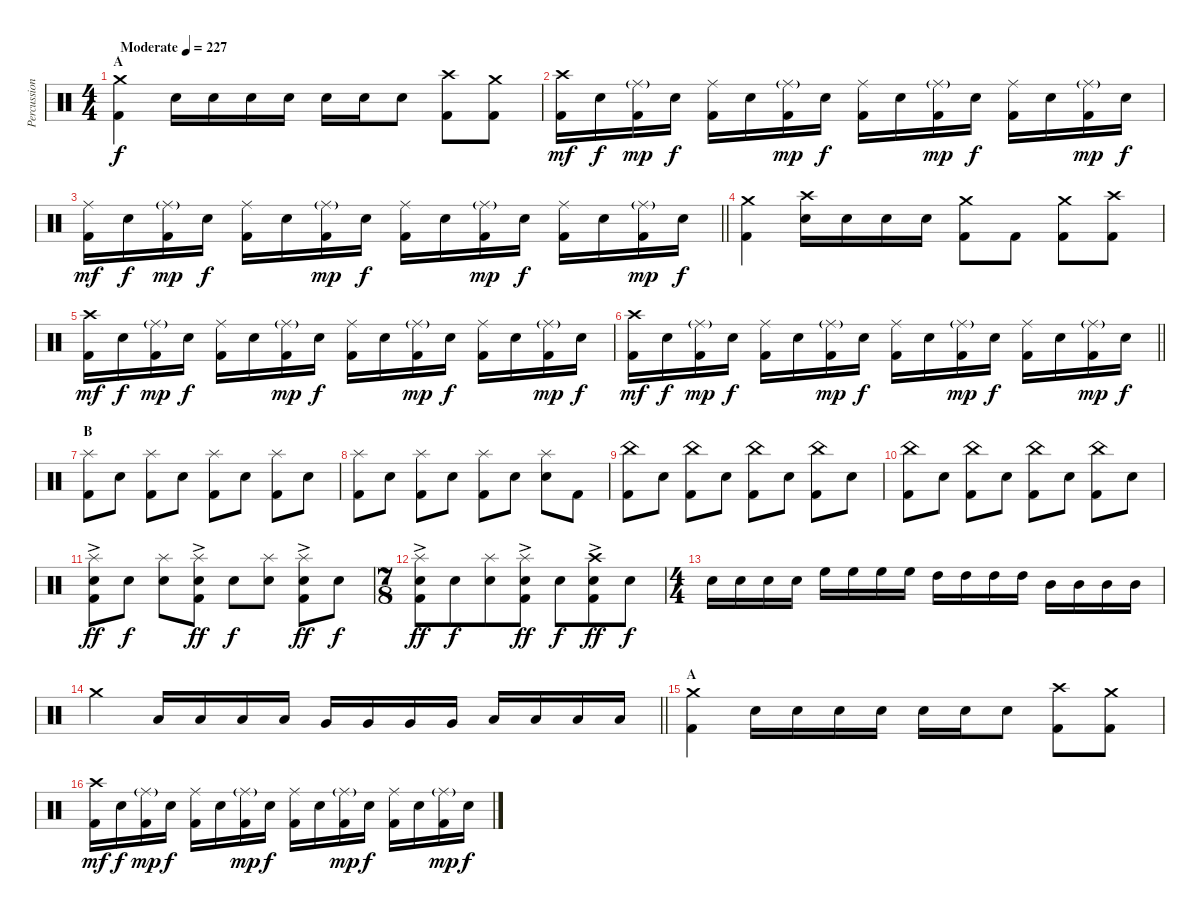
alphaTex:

\track ("Percussion" "Percussion") {instrument percussion}
\staff {score}
\articulation defaults
\ts (4 4)
\section ("" "A")
\tempo (227 "Moderate")
\clef neutral
\ks c
("Crash medium (hit)" "Kick (hit) 2").4{dy f} "Electric Snare (hit)".16 "Electric Snare (hit)".16 "Electric Snare (hit)".16 "Electric Snare (hit)".16 "Electric Snare (hit)".16 "Electric Snare (hit)".16 "Electric Snare (hit)".8 ("Crash high (hit)" "Kick (hit) 2").8 ("Crash medium (hit)" "Kick (hit) 2").8 |
("Crash high (hit)" "Kick (hit) 2").16{dy mf} "Electric Snare (hit)".16{dy f} ("Ride (middle)"{g} "Kick (hit) 2").16{dy mp} "Electric Snare (hit)".16{dy f} ("Ride (middle)" "Kick (hit) 2").16 "Electric Snare (hit)".16 ("Ride (middle)"{g} "Kick (hit) 2").16{dy mp} "Electric Snare (hit)".16{dy f} ("Ride (middle)" "Kick (hit) 2").16 "Electric Snare (hit)".16 ("Ride (middle)"{g} "Kick (hit) 2").16{dy mp} "Electric Snare (hit)".16{dy f} ("Ride (middle)" "Kick (hit) 2").16 "Electric Snare (hit)".16 ("Ride (middle)"{g} "Kick (hit) 2").16{dy mp} "Electric Snare (hit)".16{dy f} |
\barLineRight lightlight
("Ride (middle)" "Kick (hit) 2").16{dy mf} "Electric Snare (hit)".16{dy f} ("Ride (middle)"{g} "Kick (hit) 2").16{dy mp} "Electric Snare (hit)".16{dy f} ("Ride (middle)" "Kick (hit) 2").16 "Electric Snare (hit)".16 ("Ride (middle)"{g} "Kick (hit) 2").16{dy mp} "Electric Snare (hit)".16{dy f} ("Ride (middle)" "Kick (hit) 2").16 "Electric Snare (hit)".16 ("Ride (middle)"{g} "Kick (hit) 2").16{dy mp} "Electric Snare (hit)".16{dy f} ("Ride (middle)" "Kick (hit) 2").16 "Electric Snare (hit)".16 ("Ride (middle)"{g} "Kick (hit) 2").16{dy mp} "Electric Snare (hit)".16{dy f} |
\section ("" "")
("Crash medium (hit)" "Kick (hit) 2").4 ("Crash high (hit)" "Electric Snare (hit)").16 "Electric Snare (hit)".16 "Electric Snare (hit)".16 "Electric Snare (hit)".16 ("Crash medium (hit)" "Kick (hit) 2").8 "Kick (hit) 2".8 ("Crash medium (hit)" "Kick (hit) 2").8 ("Crash high (hit)" "Kick (hit) 2").8 |
("Crash high (hit)" "Kick (hit) 2").16{dy mf} "Electric Snare (hit)".16{dy f} ("Ride (middle)"{g} "Kick (hit) 2").16{dy mp} "Electric Snare (hit)".16{dy f} ("Ride (middle)" "Kick (hit) 2").16 "Electric Snare (hit)".16 ("Ride (middle)"{g} "Kick (hit) 2").16{dy mp} "Electric Snare (hit)".16{dy f} ("Ride (middle)" "Kick (hit) 2").16 "Electric Snare (hit)".16 ("Ride (middle)"{g} "Kick (hit) 2").16{dy mp} "Electric Snare (hit)".16{dy f} ("Ride (middle)" "Kick (hit) 2").16 "Electric Snare (hit)".16 ("Ride (middle)"{g} "Kick (hit) 2").16{dy mp} "Electric Snare (hit)".16{dy f} |
\barLineRight lightlight
("Crash high (hit)" "Kick (hit) 2").16{dy mf} "Electric Snare (hit)".16{dy f} ("Ride (middle)"{g} "Kick (hit) 2").16{dy mp} "Electric Snare (hit)".16{dy f} ("Ride (middle)" "Kick (hit) 2").16 "Electric Snare (hit)".16 ("Ride (middle)"{g} "Kick (hit) 2").16{dy mp} "Electric Snare (hit)".16{dy f} ("Ride (middle)" "Kick (hit) 2").16 "Electric Snare (hit)".16 ("Ride (middle)"{g} "Kick (hit) 2").16{dy mp} "Electric Snare (hit)".16{dy f} ("Ride (middle)" "Kick (hit) 2").16 "Electric Snare (hit)".16 ("Ride (middle)"{g} "Kick (hit) 2").16{dy mp} "Electric Snare (hit)".16{dy f} |
\section ("" "B")
("Splash (hit)" "Kick (hit) 2").8 "Electric Snare (hit)".8 ("Splash (hit)" "Kick (hit) 2").8 "Electric Snare (hit)".8 ("Splash (hit)" "Kick (hit) 2").8 "Electric Snare (hit)".8 ("Splash (hit)" "Kick (hit) 2").8 "Electric Snare (hit)".8 |
("Splash (hit)" "Kick (hit) 2").8 "Electric Snare (hit)".8 ("Splash (hit)" "Kick (hit) 2").8 "Electric Snare (hit)".8 ("Splash (hit)" "Kick (hit) 2").8 "Electric Snare (hit)".8 ("Splash (hit)" "Electric Snare (hit)").8 "Kick (hit) 2".8 |
("China (hit)" "Kick (hit) 2").8 "Electric Snare (hit)".8 ("China (hit)" "Kick (hit) 2").8 "Electric Snare (hit)".8 ("China (hit)" "Kick (hit) 2").8 "Electric Snare (hit)".8 ("China (hit)" "Kick (hit) 2").8 "Electric Snare (hit)".8 |
("China (hit)" "Kick (hit) 2").8 "Electric Snare (hit)".8 ("China (hit)" "Kick (hit) 2").8 "Electric Snare (hit)".8 ("China (hit)" "Kick (hit) 2").8 "Electric Snare (hit)".8 ("China (hit)" "Kick (hit) 2").8 "Electric Snare (hit)".8 |
("Splash (hit)"{ac} "Electric Snare (hit)" "Kick (hit) 2").8{dy ff} "Electric Snare (hit)".8{dy f} ("Splash (hit)" "Electric Snare (hit)").8 ("Splash (hit)"{ac} "Electric Snare (hit)" "Kick (hit) 2").8{dy ff} "Electric Snare (hit)".8{dy f} ("Splash (hit)" "Electric Snare (hit)").8 ("Splash (hit)"{ac} "Electric Snare (hit)" "Kick (hit) 2").8{dy ff} "Electric Snare (hit)".8{dy f} |
\ts (7 8)
("Splash (hit)"{ac} "Electric Snare (hit)" "Kick (hit) 2").8{dy ff} "Electric Snare (hit)".8{dy f} ("Splash (hit)" "Electric Snare (hit)").8 ("Splash (hit)"{ac} "Electric Snare (hit)" "Kick (hit) 2").8{dy ff} "Electric Snare (hit)".8{dy f} ("Crash high (hit)"{ac} "Electric Snare (hit)" "Kick (hit) 2").8{dy ff} "Electric Snare (hit)".8{dy f} |
\ts (4 4)
"Electric Snare (hit)".16 "Electric Snare (hit)".16 "Electric Snare (hit)".16 "Electric Snare (hit)".16 "High Floor Tom (hit)".16 "High Floor Tom (hit)".16 "High Floor Tom (hit)".16 "High Floor Tom (hit)".16 "High Tom (hit)".16 "High Tom (hit)".16 "High Tom (hit)".16 "High Tom (hit)".16 "Mid Tom (hit)".16 "Mid Tom (hit)".16 "Mid Tom (hit)".16 "Mid Tom (hit)".16 |
\barLineRight lightlight "Crash medium (hit)".4 "Low Tom (hit)".16 "Low Tom (hit)".16 "Low Tom (hit)".16 "Low Tom (hit)".16 "Very Low Tom (hit)".16 "Very Low Tom (hit)".16 "Very Low Tom (hit)".16 "Very Low Tom (hit)".16 "Low Floor Tom (hit)".16 "Low Floor Tom (hit)".16 "Low Floor Tom (hit)".16 "Low Floor Tom (hit)".16
|
\section ("" "A")
("Crash medium (hit)" "Kick (hit) 2").4 "Electric Snare (hit)".16 "Electric Snare (hit)".16 "Electric Snare (hit)".16 "Electric Snare (hit)".16 "Electric Snare (hit)".16 "Electric Snare (hit)".16 "Electric Snare (hit)".8 ("Crash high (hit)" "Kick (hit) 2").8 ("Crash medium (hit)" "Kick (hit) 2").8 |
("Crash high (hit)" "Kick (hit) 2").16{dy mf} "Electric Snare (hit)".16{dy f} ("Ride (middle)"{g} "Kick (hit) 2").16{dy mp} "Electric Snare (hit)".16{dy f} ("Ride (middle)" "Kick (hit) 2").16 "Electric Snare (hit)".16 ("Ride (middle)"{g} "Kick (hit) 2").16{dy mp} "Electric Snare (hit)".16{dy f} ("Ride (middle)" "Kick (hit) 2").16 "Electric Snare (hit)".16 ("Ride (middle)"{g} "Kick (hit) 2").16{dy mp} "Electric Snare (hit)".16{dy f} ("Ride (middle)" "Kick (hit) 2").16 "Electric Snare (hit)".16 ("Ride (middle)"{g} "Kick (hit) 2").16{dy mp} "Electric Snare (hit)".16{dy f}
